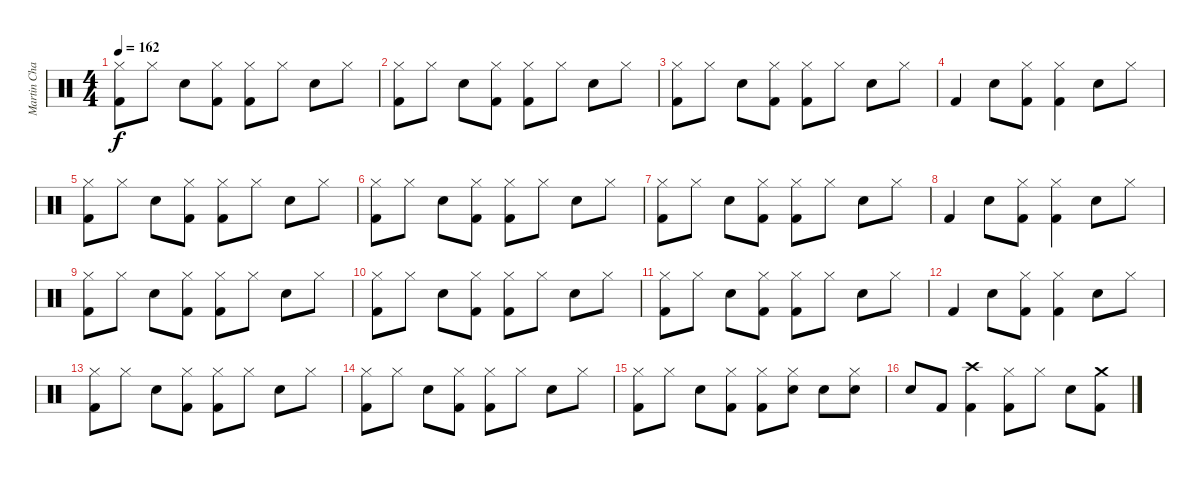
\track ("Martin Chambers" "Martin Cha") {instrument percussion}
\staff {score}
\articulation defaults
\ts (4 4)
\tempo 162
\clef neutral
\ks c
("Hi-Hat (closed)" "Kick (hit) 2").8{dy f} "Hi-Hat (closed)".8 "Snare (hit) 2".8 ("Hi-Hat (closed)" "Kick (hit) 2").8 ("Hi-Hat (closed)" "Kick (hit) 2").8 "Hi-Hat (closed)".8 "Snare (hit) 2".8 "Hi-Hat (closed)".8 |
("Hi-Hat (closed)" "Kick (hit) 2").8 "Hi-Hat (closed)".8 "Snare (hit) 2".8 ("Hi-Hat (closed)" "Kick (hit) 2").8 ("Hi-Hat (closed)" "Kick (hit) 2").8 "Hi-Hat (closed)".8 "Snare (hit) 2".8 "Hi-Hat (closed)".8 |
("Hi-Hat (closed)" "Kick (hit) 2").8 "Hi-Hat (closed)".8 "Snare (hit) 2".8 ("Hi-Hat (closed)" "Kick (hit) 2").8 ("Hi-Hat (closed)" "Kick (hit) 2").8 "Hi-Hat (closed)".8 "Snare (hit) 2".8 "Hi-Hat (closed)".8 |
"Kick (hit) 2".4 "Snare (hit) 2".8 ("Hi-Hat (closed)" "Kick (hit) 2").8 ("Hi-Hat (closed)" "Kick (hit) 2").4 "Snare (hit) 2".8 "Hi-Hat (closed)".8 |
("Hi-Hat (closed)" "Kick (hit) 2").8 "Hi-Hat (closed)".8 "Snare (hit) 2".8 ("Hi-Hat (closed)" "Kick (hit) 2").8 ("Hi-Hat (closed)" "Kick (hit) 2").8 "Hi-Hat (closed)".8 "Snare (hit) 2".8 "Hi-Hat (closed)".8 |
("Hi-Hat (closed)" "Kick (hit) 2").8 "Hi-Hat (closed)".8 "Snare (hit) 2".8 ("Hi-Hat (closed)" "Kick (hit) 2").8 ("Hi-Hat (closed)" "Kick (hit) 2").8 "Hi-Hat (closed)".8 "Snare (hit) 2".8 "Hi-Hat (closed)".8 |
("Hi-Hat (closed)" "Kick (hit) 2").8 "Hi-Hat (closed)".8 "Snare (hit) 2".8 ("Hi-Hat (closed)" "Kick (hit) 2").8 ("Hi-Hat (closed)" "Kick (hit) 2").8 "Hi-Hat (closed)".8 "Snare (hit) 2".8 "Hi-Hat (closed)".8 |
"Kick (hit) 2".4 "Snare (hit) 2".8 ("Hi-Hat (closed)" "Kick (hit) 2").8 ("Hi-Hat (closed)" "Kick (hit) 2").4 "Snare (hit) 2".8 "Hi-Hat (closed)".8 |
("Hi-Hat (closed)" "Kick (hit) 2").8 "Hi-Hat (closed)".8 "Snare (hit) 2".8 ("Hi-Hat (closed)" "Kick (hit) 2").8 ("Hi-Hat (closed)" "Kick (hit) 2").8 "Hi-Hat (closed)".8 "Snare (hit) 2".8 "Hi-Hat (closed)".8 |
("Hi-Hat (closed)" "Kick (hit) 2").8 "Hi-Hat (closed)".8 "Snare (hit) 2".8 ("Hi-Hat (closed)" "Kick (hit) 2").8 ("Hi-Hat (closed)" "Kick (hit) 2").8 "Hi-Hat (closed)".8 "Snare (hit) 2".8 "Hi-Hat (closed)".8 |
("Hi-Hat (closed)" "Kick (hit) 2").8 "Hi-Hat (closed)".8 "Snare (hit) 2".8 ("Hi-Hat (closed)" "Kick (hit) 2").8 ("Hi-Hat (closed)" "Kick (hit) 2").8 "Hi-Hat (closed)".8 "Snare (hit) 2".8 "Hi-Hat (closed)".8 |
"Kick (hit) 2".4 "Snare (hit) 2".8 ("Hi-Hat (closed)" "Kick (hit) 2").8 ("Hi-Hat (closed)" "Kick (hit) 2").4 "Snare (hit) 2".8 "Hi-Hat (closed)".8 |
("Hi-Hat (closed)" "Kick (hit) 2").8 "Hi-Hat (closed)".8 "Snare (hit) 2".8 ("Hi-Hat (closed)" "Kick (hit) 2").8 ("Hi-Hat (closed)" "Kick (hit) 2").8 "Hi-Hat (closed)".8 "Snare (hit) 2".8 "Hi-Hat (closed)".8 |
("Hi-Hat (closed)" "Kick (hit) 2").8 "Hi-Hat (closed)".8 "Snare (hit) 2".8 ("Hi-Hat (closed)" "Kick (hit) 2").8 ("Hi-Hat (closed)" "Kick (hit) 2").8 "Hi-Hat (closed)".8 "Snare (hit) 2".8 "Hi-Hat (closed)".8 |
("Hi-Hat (closed)" "Kick (hit) 2").8 "Hi-Hat (closed)".8 "Snare (hit) 2".8 ("Hi-Hat (closed)" "Kick (hit) 2").8 ("Hi-Hat (closed)" "Kick (hit) 2").8 ("Hi-Hat (closed)" "Snare (hit) 2").8 "Snare (hit) 2".8 ("Hi-Hat (closed)" "Snare (hit) 2").8 |
"Snare (hit) 2".8 "Kick (hit) 2".8 ("Crash high (hit)" "Kick (hit) 2").4 ("Hi-Hat (closed)" "Kick (hit) 2").8 "Hi-Hat (closed)".8 "Snare (hit) 2".8 ("Crash medium (hit)" "Kick (hit) 2").8
